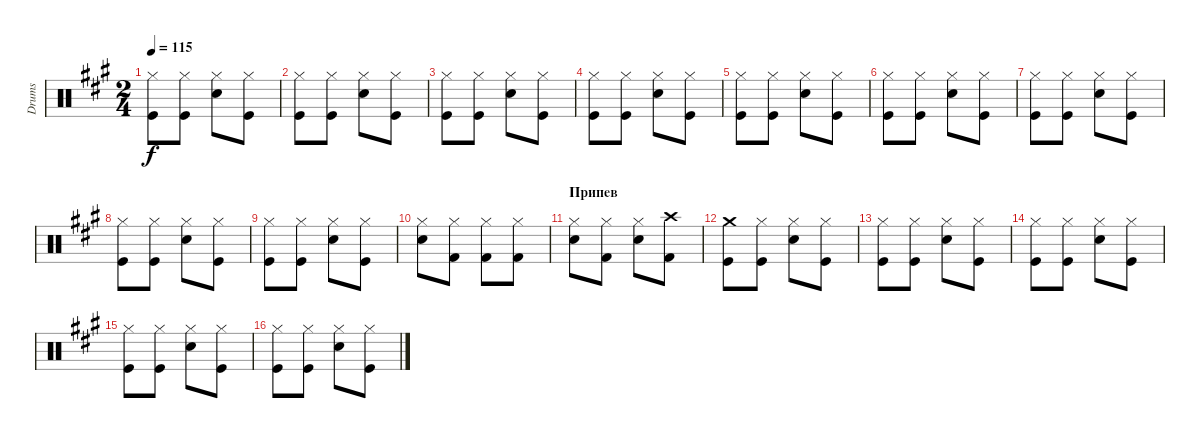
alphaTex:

\track ("Drums" "Drums") {instrument percussion}
\staff {score}
\articulation defaults
\ts (2 4)
\tempo 115
\clef neutral
\ks f#minor
("Hi-Hat (closed)" "Kick (hit)").8{dy f} ("Hi-Hat (closed)" "Kick (hit)").8 ("Hi-Hat (closed)" "Electric Snare (hit)").8 ("Hi-Hat (closed)" "Kick (hit)").8 |
("Hi-Hat (closed)" "Kick (hit)").8 ("Hi-Hat (closed)" "Kick (hit)").8 ("Hi-Hat (closed)" "Electric Snare (hit)").8 ("Hi-Hat (closed)" "Kick (hit)").8 |
("Hi-Hat (closed)" "Kick (hit)").8 ("Hi-Hat (closed)" "Kick (hit)").8 ("Hi-Hat (closed)" "Electric Snare (hit)").8 ("Hi-Hat (closed)" "Kick (hit)").8 |
("Hi-Hat (closed)" "Kick (hit)").8 ("Hi-Hat (closed)" "Kick (hit)").8 ("Hi-Hat (closed)" "Electric Snare (hit)").8 ("Hi-Hat (closed)" "Kick (hit)").8 |
("Hi-Hat (closed)" "Kick (hit)").8 ("Hi-Hat (closed)" "Kick (hit)").8 ("Hi-Hat (closed)" "Electric Snare (hit)").8 ("Hi-Hat (closed)" "Kick (hit)").8 |
("Hi-Hat (closed)" "Kick (hit)").8 ("Hi-Hat (closed)" "Kick (hit)").8 ("Hi-Hat (closed)" "Electric Snare (hit)").8 ("Hi-Hat (closed)" "Kick (hit)").8 |
("Hi-Hat (closed)" "Kick (hit)").8 ("Hi-Hat (closed)" "Kick (hit)").8 ("Hi-Hat (closed)" "Electric Snare (hit)").8 ("Hi-Hat (closed)" "Kick (hit)").8 |
("Hi-Hat (closed)" "Kick (hit)").8 ("Hi-Hat (closed)" "Kick (hit)").8 ("Hi-Hat (closed)" "Electric Snare (hit)").8 ("Hi-Hat (closed)" "Kick (hit)").8 |
("Hi-Hat (closed)" "Kick (hit)").8 ("Hi-Hat (closed)" "Kick (hit)").8 ("Hi-Hat (closed)" "Electric Snare (hit)").8 ("Hi-Hat (closed)" "Kick (hit)").8 |
("Hi-Hat (closed)" "Electric Snare (hit)").8 ("Hi-Hat (closed)" "Kick (hit) 2").8 ("Hi-Hat (closed)" "Kick (hit) 2").8 ("Hi-Hat (closed)" "Kick (hit) 2").8 |
\section ("" "Припев")
("Hi-Hat (closed)" "Electric Snare (hit)").8 ("Hi-Hat (closed)" "Kick (hit) 2").8 ("Hi-Hat (closed)" "Electric Snare (hit)").8 ("Crash high (hit)" "Kick (hit) 2").8 |
("Crash medium (hit)" "Kick (hit)").8 ("Hi-Hat (closed)" "Kick (hit)").8 ("Hi-Hat (closed)" "Electric Snare (hit)").8 ("Hi-Hat (closed)" "Kick (hit)").8 |
("Hi-Hat (closed)" "Kick (hit)").8 ("Hi-Hat (closed)" "Kick (hit)").8 ("Hi-Hat (closed)" "Electric Snare (hit)").8 ("Hi-Hat (closed)" "Kick (hit)").8 |
("Hi-Hat (closed)" "Kick (hit)").8 ("Hi-Hat (closed)" "Kick (hit)").8 ("Hi-Hat (closed)" "Electric Snare (hit)").8 ("Hi-Hat (closed)" "Kick (hit)").8 |
("Hi-Hat (closed)" "Kick (hit)").8 ("Hi-Hat (closed)" "Kick (hit)").8 ("Hi-Hat (closed)" "Electric Snare (hit)").8 ("Hi-Hat (closed)" "Kick (hit)").8 |
("Hi-Hat (closed)" "Kick (hit)").8 ("Hi-Hat (closed)" "Kick (hit)").8 ("Hi-Hat (closed)" "Electric Snare (hit)").8 ("Hi-Hat (closed)" "Kick (hit)").8
